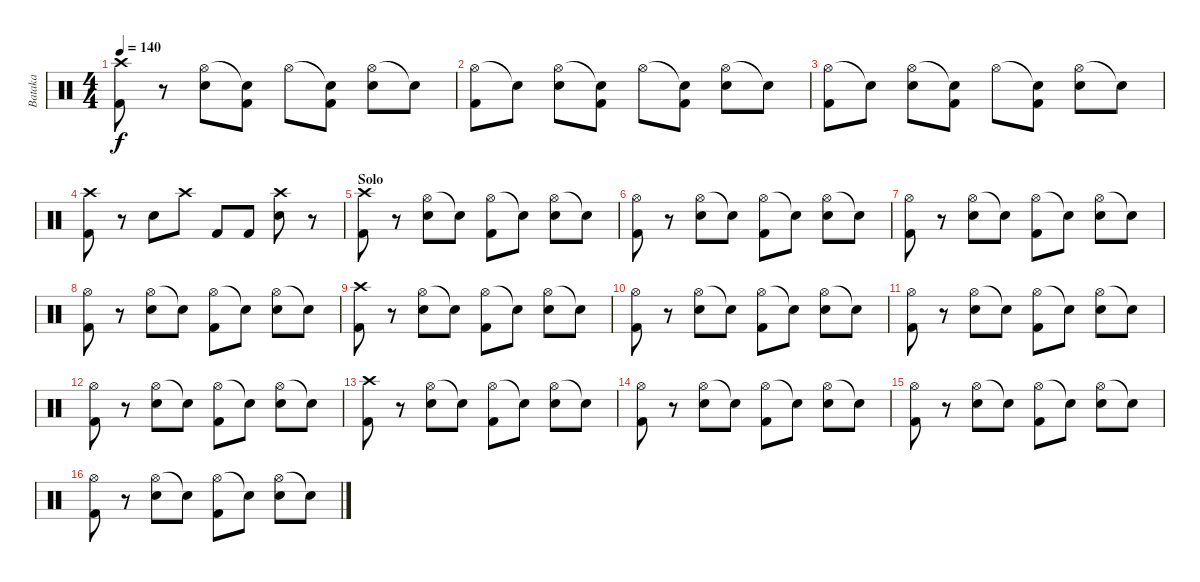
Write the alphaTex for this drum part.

\track ("Bataka" "Bataka") {instrument percussion}
\staff {score}
\articulation defaults
\ts (4 4)
\tempo 140
\clef neutral
\ks c
("Crash high (hit)" "Kick (hit) 2").8{dy f} r.8 ("Hi-Hat (open)" "Snare (hit) 2").8 ("Snare (hit)"{t} "Kick (hit) 2").8 "Hi-Hat (open)".8 ("Snare (hit)"{t} "Kick (hit) 2").8 ("Hi-Hat (open)" "Snare (hit) 2").8 "Snare (hit)"{t}.8 |
("Hi-Hat (open)" "Kick (hit) 2").8 "Snare (hit)"{t}.8 ("Hi-Hat (open)" "Snare (hit) 2").8 ("Snare (hit)"{t} "Kick (hit) 2").8 "Hi-Hat (open)".8 ("Snare (hit)"{t} "Kick (hit) 2").8 ("Hi-Hat (open)" "Snare (hit) 2").8 "Snare (hit)"{t}.8 |
("Hi-Hat (open)" "Kick (hit) 2").8 "Snare (hit)"{t}.8 ("Hi-Hat (open)" "Snare (hit) 2").8 ("Snare (hit)"{t} "Kick (hit) 2").8 "Hi-Hat (open)".8 ("Snare (hit)"{t} "Kick (hit) 2").8 ("Hi-Hat (open)" "Snare (hit) 2").8 "Snare (hit)"{t}.8 |
("Crash high (hit)" "Kick (hit) 2").8 r.8 "Snare (hit) 2".8 "Crash high (hit)".8 "Kick (hit) 2".8 "Kick (hit) 2".8 ("Crash high (hit)" "Snare (hit) 2").8 r.8 |
\section ("" "Solo")
("Crash high (hit)" "Kick (hit) 2").8 r.8 ("Hi-Hat (open)" "Snare (hit) 2").8 "Snare (hit)"{t}.8 ("Hi-Hat (open)" "Kick (hit) 2").8 "Snare (hit)"{t}.8 ("Hi-Hat (open)" "Snare (hit) 2").8 "Snare (hit)"{t}.8 |
("Hi-Hat (open)" "Kick (hit) 2").8 r.8 ("Hi-Hat (open)" "Snare (hit) 2").8 "Snare (hit)"{t}.8 ("Hi-Hat (open)" "Kick (hit) 2").8 "Snare (hit)"{t}.8 ("Hi-Hat (open)" "Snare (hit) 2").8 "Snare (hit)"{t}.8 |
("Hi-Hat (open)" "Kick (hit) 2").8 r.8 ("Hi-Hat (open)" "Snare (hit) 2").8 "Snare (hit)"{t}.8 ("Hi-Hat (open)" "Kick (hit) 2").8 "Snare (hit)"{t}.8 ("Hi-Hat (open)" "Snare (hit) 2").8 "Snare (hit)"{t}.8 |
("Hi-Hat (open)" "Kick (hit) 2").8 r.8 ("Hi-Hat (open)" "Snare (hit) 2").8 "Snare (hit)"{t}.8 ("Hi-Hat (open)" "Kick (hit) 2").8 "Snare (hit)"{t}.8 ("Hi-Hat (open)" "Snare (hit) 2").8 "Snare (hit)"{t}.8 |
("Crash high (hit)" "Kick (hit) 2").8 r.8 ("Hi-Hat (open)" "Snare (hit) 2").8 "Snare (hit)"{t}.8 ("Hi-Hat (open)" "Kick (hit) 2").8 "Snare (hit)"{t}.8 ("Hi-Hat (open)" "Snare (hit) 2").8 "Snare (hit)"{t}.8 |
("Hi-Hat (open)" "Kick (hit) 2").8 r.8 ("Hi-Hat (open)" "Snare (hit) 2").8 "Snare (hit)"{t}.8 ("Hi-Hat (open)" "Kick (hit) 2").8 "Snare (hit)"{t}.8 ("Hi-Hat (open)" "Snare (hit) 2").8 "Snare (hit)"{t}.8 |
("Hi-Hat (open)" "Kick (hit) 2").8 r.8 ("Hi-Hat (open)" "Snare (hit) 2").8 "Snare (hit)"{t}.8 ("Hi-Hat (open)" "Kick (hit) 2").8 "Snare (hit)"{t}.8 ("Hi-Hat (open)" "Snare (hit) 2").8 "Snare (hit)"{t}.8 |
("Hi-Hat (open)" "Kick (hit) 2").8 r.8 ("Hi-Hat (open)" "Snare (hit) 2").8 "Snare (hit)"{t}.8 ("Hi-Hat (open)" "Kick (hit) 2").8 "Snare (hit)"{t}.8 ("Hi-Hat (open)" "Snare (hit) 2").8 "Snare (hit)"{t}.8 |
("Crash high (hit)" "Kick (hit) 2").8 r.8 ("Hi-Hat (open)" "Snare (hit) 2").8 "Snare (hit)"{t}.8 ("Hi-Hat (open)" "Kick (hit) 2").8 "Snare (hit)"{t}.8 ("Hi-Hat (open)" "Snare (hit) 2").8 "Snare (hit)"{t}.8 |
("Hi-Hat (open)" "Kick (hit) 2").8 r.8 ("Hi-Hat (open)" "Snare (hit) 2").8 "Snare (hit)"{t}.8 ("Hi-Hat (open)" "Kick (hit) 2").8 "Snare (hit)"{t}.8 ("Hi-Hat (open)" "Snare (hit) 2").8 "Snare (hit)"{t}.8 |
("Hi-Hat (open)" "Kick (hit) 2").8 r.8 ("Hi-Hat (open)" "Snare (hit) 2").8 "Snare (hit)"{t}.8 ("Hi-Hat (open)" "Kick (hit) 2").8 "Snare (hit)"{t}.8 ("Hi-Hat (open)" "Snare (hit) 2").8 "Snare (hit)"{t}.8 |
("Hi-Hat (open)" "Kick (hit) 2").8 r.8 ("Hi-Hat (open)" "Snare (hit) 2").8 "Snare (hit)"{t}.8 ("Hi-Hat (open)" "Kick (hit) 2").8 "Snare (hit)"{t}.8 ("Hi-Hat (open)" "Snare (hit) 2").8 "Snare (hit)"{t}.8
